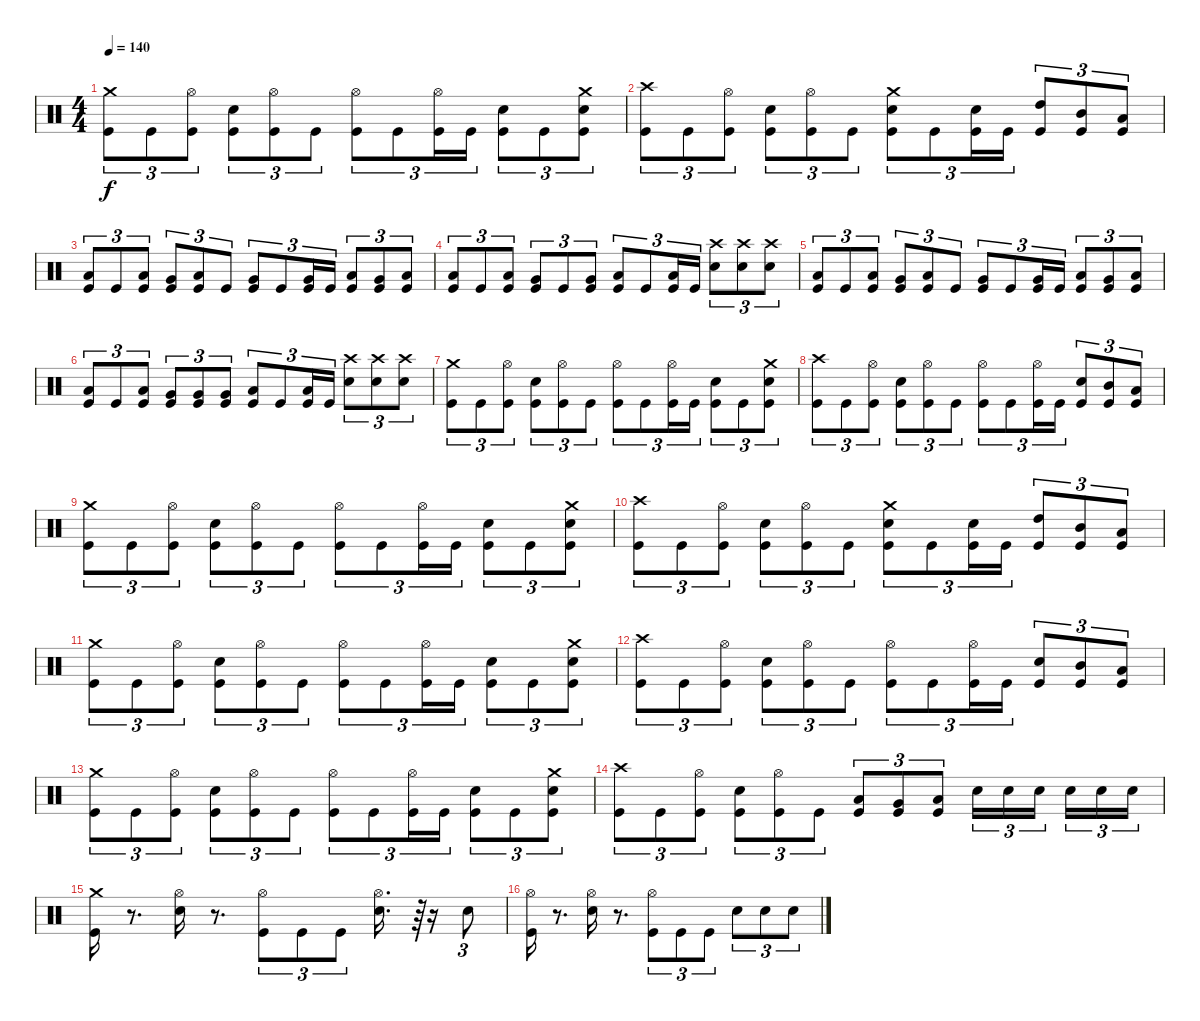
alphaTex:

\track "" {instrument percussion}
\staff {score}
\articulation defaults
\ts (4 4)
\tempo 140
\clef neutral
\ks c
("Crash medium (hit)" "Kick (hit)").8{tu (3 2) dy f} "Kick (hit)".8{tu (3 2)} ("Kick (hit)" "Hi-Hat (open)").8{tu (3 2)} ("Kick (hit)" "Snare (hit) 2").8{tu (3 2)} ("Kick (hit)" "Hi-Hat (open)").8{tu (3 2)} "Kick (hit)".8{tu (3 2)} ("Hi-Hat (open)" "Kick (hit)").8{tu (3 2)} "Kick (hit)".8{tu (3 2)} ("Hi-Hat (open)" "Kick (hit)").16{tu (3 2)} "Kick (hit)".16{tu (3 2)} ("Kick (hit)" "Snare (hit) 2").8{tu (3 2)} "Kick (hit)".8{tu (3 2)} ("Kick (hit)" "Snare (hit) 2" "Crash medium (hit)").8{tu (3 2)} |
("Crash high (hit)" "Kick (hit)").8{tu (3 2)} "Kick (hit)".8{tu (3 2)} ("Kick (hit)" "Hi-Hat (open)").8{tu (3 2)} ("Kick (hit)" "Snare (hit) 2").8{tu (3 2)} ("Kick (hit)" "Hi-Hat (open)").8{tu (3 2)} "Kick (hit)".8{tu (3 2)} ("Snare (hit) 2" "Crash medium (hit)" "Kick (hit)").8{tu (3 2)} "Kick (hit)".8{tu (3 2)} ("Snare (hit) 2" "Kick (hit)").16{tu (3 2)} "Kick (hit)".16{tu (3 2)} ("Kick (hit)" "High Tom (hit)").8{tu (3 2)} ("Kick (hit)" "Mid Tom (hit)").8{tu (3 2)} ("Kick (hit)" "Low Tom (hit)").8{tu (3 2)} |
("Low Tom (hit)" "Kick (hit)").8{tu (3 2)} "Kick (hit)".8{tu (3 2)} ("Low Tom (hit)" "Kick (hit)").8{tu (3 2)} ("Very Low Tom (hit)" "Kick (hit)").8{tu (3 2)} ("Low Tom (hit)" "Kick (hit)").8{tu (3 2)} "Kick (hit)".8{tu (3 2)} ("Very Low Tom (hit)" "Kick (hit)").8{tu (3 2)} "Kick (hit)".8{tu (3 2)} ("Very Low Tom (hit)" "Kick (hit)").16{tu (3 2)} "Kick (hit)".16{tu (3 2)} ("Low Floor Tom (hit)" "Kick (hit)").8{tu (3 2)} ("Kick (hit)" "Very Low Tom (hit)").8{tu (3 2)} ("Kick (hit)" "Low Floor Tom (hit)").8{tu (3 2)} |
("Low Tom (hit)" "Kick (hit)").8{tu (3 2)} "Kick (hit)".8{tu (3 2)} ("Kick (hit)" "Low Tom (hit)").8{tu (3 2)} ("Very Low Tom (hit)" "Kick (hit)").8{tu (3 2)} "Kick (hit)".8{tu (3 2)} ("Very Low Tom (hit)" "Kick (hit)").8{tu (3 2)} ("Low Floor Tom (hit)" "Kick (hit)").8{tu (3 2)} "Kick (hit)".8{tu (3 2)} ("Low Floor Tom (hit)" "Kick (hit)").16{tu (3 2)} "Kick (hit)".16{tu (3 2)} ("Snare (hit) 2" "Crash high (hit)").8{tu (3 2)} ("Snare (hit) 2" "Crash high (hit)").8{tu (3 2)} ("Snare (hit) 2" "Crash high (hit)").8{tu (3 2)} |
("Low Tom (hit)" "Kick (hit)").8{tu (3 2)} "Kick (hit)".8{tu (3 2)} ("Low Tom (hit)" "Kick (hit)").8{tu (3 2)} ("Very Low Tom (hit)" "Kick (hit)").8{tu (3 2)} ("Low Tom (hit)" "Kick (hit)").8{tu (3 2)} "Kick (hit)".8{tu (3 2)} ("Very Low Tom (hit)" "Kick (hit)").8{tu (3 2)} "Kick (hit)".8{tu (3 2)} ("Very Low Tom (hit)" "Kick (hit)").16{tu (3 2)} "Kick (hit)".16{tu (3 2)} ("Low Floor Tom (hit)" "Kick (hit)").8{tu (3 2)} ("Kick (hit)" "Very Low Tom (hit)").8{tu (3 2)} ("Kick (hit)" "Low Floor Tom (hit)").8{tu (3 2)} |
("Low Tom (hit)" "Kick (hit)").8{tu (3 2)} "Kick (hit)".8{tu (3 2)} ("Kick (hit)" "Low Tom (hit)").8{tu (3 2)} ("Very Low Tom (hit)" "Kick (hit)").8{tu (3 2)} ("Very Low Tom (hit)" "Kick (hit)").8{tu (3 2)} ("Very Low Tom (hit)" "Kick (hit)").8{tu (3 2)} ("Low Floor Tom (hit)" "Kick (hit)").8{tu (3 2)} "Kick (hit)".8{tu (3 2)} ("Low Floor Tom (hit)" "Kick (hit)").16{tu (3 2)} "Kick (hit)".16{tu (3 2)} ("Snare (hit) 2" "Crash high (hit)").8{tu (3 2)} ("Snare (hit) 2" "Crash high (hit)").8{tu (3 2)} ("Snare (hit) 2" "Crash high (hit)").8{tu (3 2)} |
("Crash medium (hit)" "Kick (hit)").8{tu (3 2)} "Kick (hit)".8{tu (3 2)} ("Hi-Hat (open)" "Kick (hit)").8{tu (3 2)} ("Snare (hit) 2" "Kick (hit)").8{tu (3 2)} ("Hi-Hat (open)" "Kick (hit)").8{tu (3 2)} "Kick (hit)".8{tu (3 2)} ("Hi-Hat (open)" "Kick (hit)").8{tu (3 2)} "Kick (hit)".8{tu (3 2)} ("Hi-Hat (open)" "Kick (hit)").16{tu (3 2)} "Kick (hit)".16{tu (3 2)} ("Snare (hit) 2" "Kick (hit)").8{tu (3 2)} "Kick (hit)".8{tu (3 2)} ("Snare (hit) 2" "Crash medium (hit)" "Kick (hit)").8{tu (3 2)} |
("Crash high (hit)" "Kick (hit)").8{tu (3 2)} "Kick (hit)".8{tu (3 2)} ("Kick (hit)" "Hi-Hat (open)").8{tu (3 2)} ("Kick (hit)" "Snare (hit) 2").8{tu (3 2)} ("Kick (hit)" "Hi-Hat (open)").8{tu (3 2)} "Kick (hit)".8{tu (3 2)} ("Hi-Hat (open)" "Kick (hit)").8{tu (3 2)} "Kick (hit)".8{tu (3 2)} ("Hi-Hat (open)" "Kick (hit)").16{tu (3 2)} "Kick (hit)".16{tu (3 2)} ("Kick (hit)" "Snare (hit) 2").8{tu (3 2)} ("Kick (hit)" "Mid Tom (hit)").8{tu (3 2)} ("Kick (hit)" "Low Tom (hit)").8{tu (3 2)} |
("Crash medium (hit)" "Kick (hit)").8{tu (3 2)} "Kick (hit)".8{tu (3 2)} ("Kick (hit)" "Hi-Hat (open)").8{tu (3 2)} ("Kick (hit)" "Snare (hit) 2").8{tu (3 2)} ("Kick (hit)" "Hi-Hat (open)").8{tu (3 2)} "Kick (hit)".8{tu (3 2)} ("Hi-Hat (open)" "Kick (hit)").8{tu (3 2)} "Kick (hit)".8{tu (3 2)} ("Hi-Hat (open)" "Kick (hit)").16{tu (3 2)} "Kick (hit)".16{tu (3 2)} ("Kick (hit)" "Snare (hit) 2").8{tu (3 2)} "Kick (hit)".8{tu (3 2)} ("Kick (hit)" "Snare (hit) 2" "Crash medium (hit)").8{tu (3 2)} |
("Crash high (hit)" "Kick (hit)").8{tu (3 2)} "Kick (hit)".8{tu (3 2)} ("Kick (hit)" "Hi-Hat (open)").8{tu (3 2)} ("Kick (hit)" "Snare (hit) 2").8{tu (3 2)} ("Kick (hit)" "Hi-Hat (open)").8{tu (3 2)} "Kick (hit)".8{tu (3 2)} ("Snare (hit) 2" "Crash medium (hit)" "Kick (hit)").8{tu (3 2)} "Kick (hit)".8{tu (3 2)} ("Snare (hit) 2" "Kick (hit)").16{tu (3 2)} "Kick (hit)".16{tu (3 2)} ("Kick (hit)" "High Tom (hit)").8{tu (3 2)} ("Kick (hit)" "Mid Tom (hit)").8{tu (3 2)} ("Kick (hit)" "Low Tom (hit)").8{tu (3 2)} |
("Crash medium (hit)" "Kick (hit)").8{tu (3 2)} "Kick (hit)".8{tu (3 2)} ("Hi-Hat (open)" "Kick (hit)").8{tu (3 2)} ("Snare (hit) 2" "Kick (hit)").8{tu (3 2)} ("Hi-Hat (open)" "Kick (hit)").8{tu (3 2)} "Kick (hit)".8{tu (3 2)} ("Hi-Hat (open)" "Kick (hit)").8{tu (3 2)} "Kick (hit)".8{tu (3 2)} ("Hi-Hat (open)" "Kick (hit)").16{tu (3 2)} "Kick (hit)".16{tu (3 2)} ("Snare (hit) 2" "Kick (hit)").8{tu (3 2)} "Kick (hit)".8{tu (3 2)} ("Snare (hit) 2" "Crash medium (hit)" "Kick (hit)").8{tu (3 2)} |
("Crash high (hit)" "Kick (hit)").8{tu (3 2)} "Kick (hit)".8{tu (3 2)} ("Kick (hit)" "Hi-Hat (open)").8{tu (3 2)} ("Kick (hit)" "Snare (hit) 2").8{tu (3 2)} ("Kick (hit)" "Hi-Hat (open)").8{tu (3 2)} "Kick (hit)".8{tu (3 2)} ("Hi-Hat (open)" "Kick (hit)").8{tu (3 2)} "Kick (hit)".8{tu (3 2)} ("Hi-Hat (open)" "Kick (hit)").16{tu (3 2)} "Kick (hit)".16{tu (3 2)} ("Kick (hit)" "Snare (hit) 2").8{tu (3 2)} ("Kick (hit)" "Mid Tom (hit)").8{tu (3 2)} ("Kick (hit)" "Low Tom (hit)").8{tu (3 2)} |
("Crash medium (hit)" "Kick (hit)").8{tu (3 2)} "Kick (hit)".8{tu (3 2)} ("Kick (hit)" "Hi-Hat (open)").8{tu (3 2)} ("Kick (hit)" "Snare (hit) 2").8{tu (3 2)} ("Kick (hit)" "Hi-Hat (open)").8{tu (3 2)} "Kick (hit)".8{tu (3 2)} ("Hi-Hat (open)" "Kick (hit)").8{tu (3 2)} "Kick (hit)".8{tu (3 2)} ("Hi-Hat (open)" "Kick (hit)").16{tu (3 2)} "Kick (hit)".16{tu (3 2)} ("Kick (hit)" "Snare (hit) 2").8{tu (3 2)} "Kick (hit)".8{tu (3 2)} ("Kick (hit)" "Snare (hit) 2" "Crash medium (hit)").8{tu (3 2)} |
("Crash high (hit)" "Kick (hit)").8{tu (3 2)} "Kick (hit)".8{tu (3 2)} ("Kick (hit)" "Hi-Hat (open)").8{tu (3 2)} ("Kick (hit)" "Snare (hit) 2").8{tu (3 2)} ("Kick (hit)" "Hi-Hat (open)").8{tu (3 2)} "Kick (hit)".8{tu (3 2)} ("Low Tom (hit)" "Kick (hit)").8{tu (3 2)} ("Very Low Tom (hit)" "Kick (hit)").8{tu (3 2)} ("Low Floor Tom (hit)" "Kick (hit)").8{tu (3 2)} "Snare (hit) 2".16{tu (3 2)} "Snare (hit) 2".16{tu (3 2)} "Snare (hit) 2".16{tu (3 2) beam splitsecondary} "Snare (hit) 2".16{tu (3 2)} "Snare (hit) 2".16{tu (3 2)} "Snare (hit) 2".16{tu (3 2)} |
("Crash medium (hit)" "Kick (hit)").16 r.8{d} ("Hi-Hat (open)" "Snare (hit) 2").16 r.8{d} ("Hi-Hat (open)" "Kick (hit)").8{tu (3 2)} "Kick (hit)".8{tu (3 2)} "Kick (hit)".8{tu (3 2)} ("Hi-Hat (open)" "Snare (hit) 2").16{d} r.64{tu (3 2)} r.16 "Snare (hit) 2".8{tu (3 2)} |
("Hi-Hat (open)" "Kick (hit)").16 r.8{d} ("Hi-Hat (open)" "Snare (hit) 2").16 r.8{d} ("Hi-Hat (open)" "Kick (hit)").8{tu (3 2)} "Kick (hit)".8{tu (3 2)} "Kick (hit)".8{tu (3 2)} "Snare (hit) 2".8{tu (3 2)} "Snare (hit) 2".8{tu (3 2)} "Snare (hit) 2".8{tu (3 2)}
